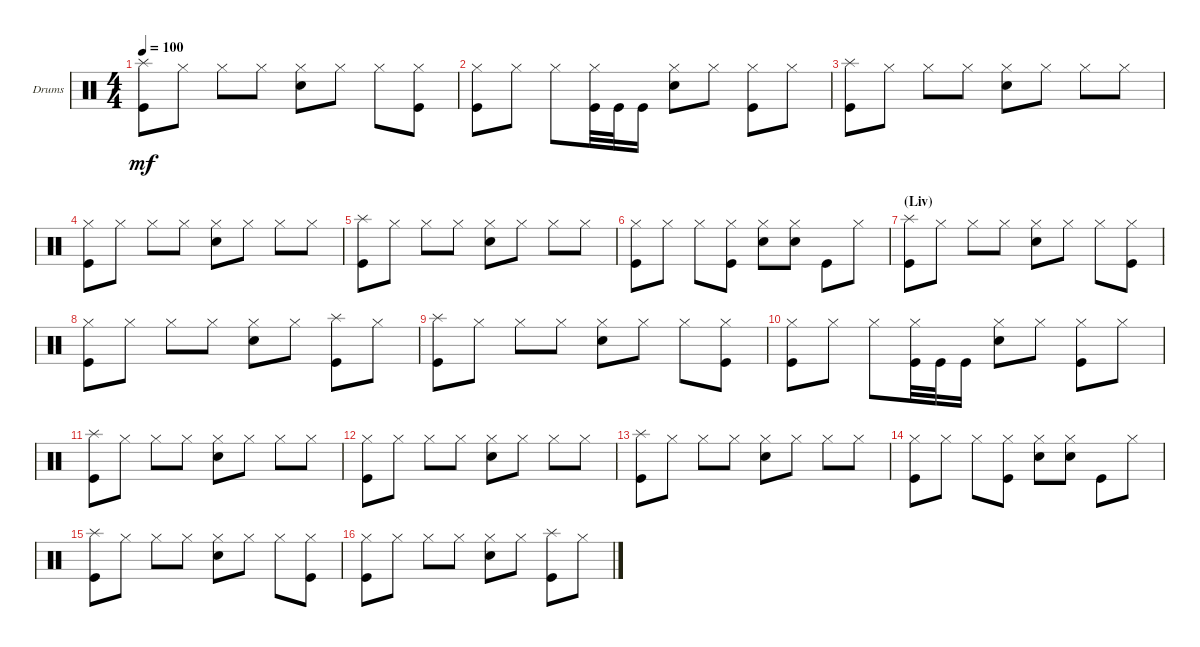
\bracketExtendMode groupsimilarinstruments
\firstSystemTrackNameOrientation horizontal
\otherSystemsTrackNameOrientation horizontal
\track ("Drumkit" "Drums") {instrument percussion}
\staff {score}
\articulation defaults
\ts (4 4)
\tempo 100
\clef neutral
\ks c
("Splash (hit)" "Kick (hit)").8{dy mf} "Hi-Hat (closed)".8 "Hi-Hat (closed)".8 "Hi-Hat (closed)".8 ("Snare (hit) 2" "Hi-Hat (closed)").8 "Hi-Hat (closed)".8 "Hi-Hat (closed)".8 ("Hi-Hat (closed)" "Kick (hit)").8 |
("Kick (hit)" "Hi-Hat (closed)").8 "Hi-Hat (closed)".8 "Hi-Hat (closed)".8 ("Kick (hit)" "Hi-Hat (closed)").32 "Kick (hit)".32 "Kick (hit)".16 ("Snare (hit) 2" "Hi-Hat (closed)").8 "Hi-Hat (closed)".8 ("Kick (hit)" "Hi-Hat (closed)").8 "Hi-Hat (closed)".8 |
("Splash (hit)" "Kick (hit)").8 "Hi-Hat (closed)".8 "Hi-Hat (closed)".8 "Hi-Hat (closed)".8 ("Snare (hit) 2" "Hi-Hat (closed)").8 "Hi-Hat (closed)".8 "Hi-Hat (closed)".8 "Hi-Hat (closed)".8 |
("Kick (hit)" "Hi-Hat (closed)").8 "Hi-Hat (closed)".8 "Hi-Hat (closed)".8 "Hi-Hat (closed)".8 ("Snare (hit) 2" "Hi-Hat (closed)").8 "Hi-Hat (closed)".8 "Hi-Hat (closed)".8 "Hi-Hat (closed)".8 |
("Splash (hit)" "Kick (hit)").8 "Hi-Hat (closed)".8 "Hi-Hat (closed)".8 "Hi-Hat (closed)".8 ("Snare (hit) 2" "Hi-Hat (closed)").8 "Hi-Hat (closed)".8 "Hi-Hat (closed)".8 "Hi-Hat (closed)".8 |
("Kick (hit)" "Hi-Hat (closed)").8 "Hi-Hat (closed)".8 "Hi-Hat (closed)".8 ("Kick (hit)" "Hi-Hat (closed)").8 ("Snare (hit) 2" "Hi-Hat (closed)").8 ("Snare (hit) 2" "Hi-Hat (closed)").8 "Kick (hit)".8 "Hi-Hat (closed)".8 |
\section ("" "(Liv)")
("Splash (hit)" "Kick (hit)").8 "Hi-Hat (closed)".8 "Hi-Hat (closed)".8 "Hi-Hat (closed)".8 ("Snare (hit) 2" "Hi-Hat (closed)").8 "Hi-Hat (closed)".8 "Hi-Hat (closed)".8 ("Hi-Hat (closed)" "Kick (hit)").8 |
("Kick (hit)" "Hi-Hat (closed)").8 "Hi-Hat (closed)".8 "Hi-Hat (closed)".8 "Hi-Hat (closed)".8 ("Snare (hit) 2" "Hi-Hat (closed)").8 "Hi-Hat (closed)".8 ("Splash (hit)" "Kick (hit)").8 "Hi-Hat (closed)".8 |
("Splash (hit)" "Kick (hit)").8 "Hi-Hat (closed)".8 "Hi-Hat (closed)".8 "Hi-Hat (closed)".8 ("Snare (hit) 2" "Hi-Hat (closed)").8 "Hi-Hat (closed)".8 "Hi-Hat (closed)".8 ("Hi-Hat (closed)" "Kick (hit)").8 |
("Kick (hit)" "Hi-Hat (closed)").8 "Hi-Hat (closed)".8 "Hi-Hat (closed)".8 ("Kick (hit)" "Hi-Hat (closed)").32 "Kick (hit)".32 "Kick (hit)".16 ("Snare (hit) 2" "Hi-Hat (closed)").8 "Hi-Hat (closed)".8 ("Kick (hit)" "Hi-Hat (closed)").8 "Hi-Hat (closed)".8 |
("Splash (hit)" "Kick (hit)").8 "Hi-Hat (closed)".8 "Hi-Hat (closed)".8 "Hi-Hat (closed)".8 ("Snare (hit) 2" "Hi-Hat (closed)").8 "Hi-Hat (closed)".8 "Hi-Hat (closed)".8 "Hi-Hat (closed)".8 |
("Kick (hit)" "Hi-Hat (closed)").8 "Hi-Hat (closed)".8 "Hi-Hat (closed)".8 "Hi-Hat (closed)".8 ("Snare (hit) 2" "Hi-Hat (closed)").8 "Hi-Hat (closed)".8 "Hi-Hat (closed)".8 "Hi-Hat (closed)".8 |
("Splash (hit)" "Kick (hit)").8 "Hi-Hat (closed)".8 "Hi-Hat (closed)".8 "Hi-Hat (closed)".8 ("Snare (hit) 2" "Hi-Hat (closed)").8 "Hi-Hat (closed)".8 "Hi-Hat (closed)".8 "Hi-Hat (closed)".8 |
("Kick (hit)" "Hi-Hat (closed)").8 "Hi-Hat (closed)".8 "Hi-Hat (closed)".8 ("Kick (hit)" "Hi-Hat (closed)").8 ("Snare (hit) 2" "Hi-Hat (closed)").8 ("Snare (hit) 2" "Hi-Hat (closed)").8 "Kick (hit)".8 "Hi-Hat (closed)".8 |
("Splash (hit)" "Kick (hit)").8 "Hi-Hat (closed)".8 "Hi-Hat (closed)".8 "Hi-Hat (closed)".8 ("Snare (hit) 2" "Hi-Hat (closed)").8 "Hi-Hat (closed)".8 "Hi-Hat (closed)".8 ("Hi-Hat (closed)" "Kick (hit)").8 |
("Kick (hit)" "Hi-Hat (closed)").8 "Hi-Hat (closed)".8 "Hi-Hat (closed)".8 "Hi-Hat (closed)".8 ("Snare (hit) 2" "Hi-Hat (closed)").8 "Hi-Hat (closed)".8 ("Splash (hit)" "Kick (hit)").8 "Hi-Hat (closed)".8
